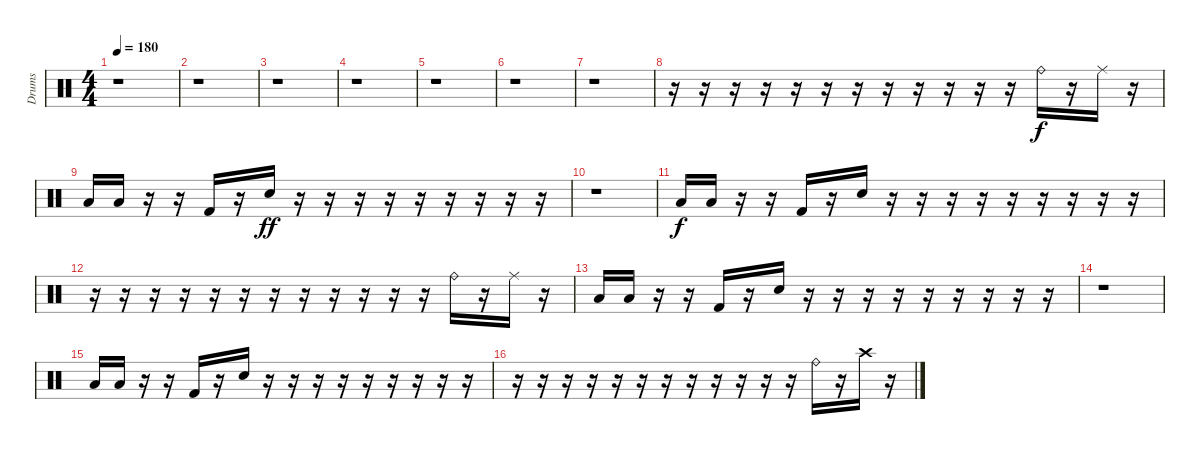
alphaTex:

\track ("Drums" "Drums") {instrument percussion}
\staff {score}
\articulation defaults
\ts (4 4)
\tempo 180
\clef neutral
\ks c
r.1{dy f} |
r.1 |
r.1 |
r.1 |
r.1 |
r.1 |
r.1 |
r.16 r.16 r.16 r.16 r.16 r.16 r.16 r.16 r.16 r.16 r.16 r.16 "Ride (bell)".16 r.16 "Ride (middle)".16 r.16 |
"Low Tom (hit)".16 "Low Tom (hit)".16 r.16 r.16 "Kick (hit) 2".16 r.16 "Snare (hit) 2".16{dy ff} r.16 r.16 r.16 r.16 r.16 r.16 r.16 r.16 r.16 |
r.1 |
"Low Tom (hit)".16{dy f} "Low Tom (hit)".16 r.16 r.16 "Kick (hit) 2".16 r.16 "Snare (hit) 2".16 r.16 r.16 r.16 r.16 r.16 r.16 r.16 r.16 r.16 |
r.16 r.16 r.16 r.16 r.16 r.16 r.16 r.16 r.16 r.16 r.16 r.16 "Ride (bell)".16 r.16 "Ride (middle)".16 r.16 |
"Low Tom (hit)".16 "Low Tom (hit)".16 r.16 r.16 "Kick (hit) 2".16 r.16 "Snare (hit) 2".16 r.16 r.16 r.16 r.16 r.16 r.16 r.16 r.16 r.16 |
r.1 |
"Low Tom (hit)".16 "Low Tom (hit)".16 r.16 r.16 "Kick (hit) 2".16 r.16 "Snare (hit) 2".16 r.16 r.16 r.16 r.16 r.16 r.16 r.16 r.16 r.16 |
r.16 r.16 r.16 r.16 r.16 r.16 r.16 r.16 r.16 r.16 r.16 r.16 "Ride (bell)".16 r.16 "Crash high (hit)".16 r.16
